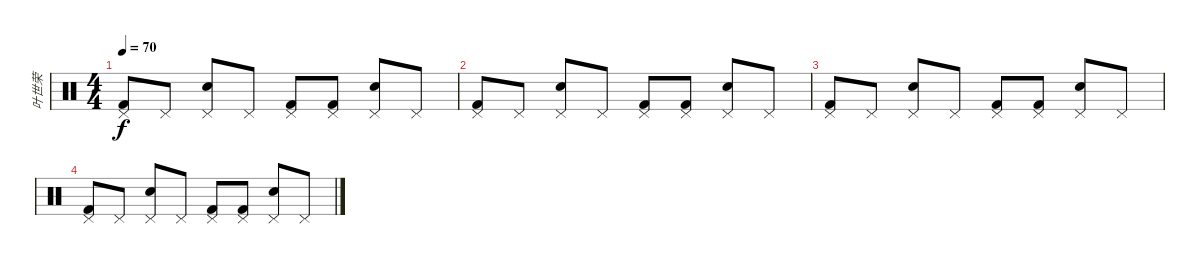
\track ("叶世荣" "叶世荣") {instrument percussion}
\staff {score}
\articulation defaults
\ts (4 4)
\tempo 70
\clef neutral
\ks c
("Pedal Hi-Hat (hit)" "Kick (hit) 2").8{dy f volume 5} "Pedal Hi-Hat (hit)".8 ("Pedal Hi-Hat (hit)" "Snare (hit) 2").8 "Pedal Hi-Hat (hit)".8 ("Pedal Hi-Hat (hit)" "Kick (hit) 2").8 ("Pedal Hi-Hat (hit)" "Kick (hit) 2").8 ("Pedal Hi-Hat (hit)" "Snare (hit) 2").8 "Pedal Hi-Hat (hit)".8 |
("Pedal Hi-Hat (hit)" "Kick (hit) 2").8{volume 2} "Pedal Hi-Hat (hit)".8 ("Pedal Hi-Hat (hit)" "Snare (hit) 2").8 "Pedal Hi-Hat (hit)".8 ("Pedal Hi-Hat (hit)" "Kick (hit) 2").8 ("Pedal Hi-Hat (hit)" "Kick (hit) 2").8 ("Pedal Hi-Hat (hit)" "Snare (hit) 2").8 "Pedal Hi-Hat (hit)".8 |
("Pedal Hi-Hat (hit)" "Kick (hit) 2").8{volume 1} "Pedal Hi-Hat (hit)".8 ("Pedal Hi-Hat (hit)" "Snare (hit) 2").8 "Pedal Hi-Hat (hit)".8 ("Pedal Hi-Hat (hit)" "Kick (hit) 2").8 ("Pedal Hi-Hat (hit)" "Kick (hit) 2").8 ("Pedal Hi-Hat (hit)" "Snare (hit) 2").8 "Pedal Hi-Hat (hit)".8 |
("Pedal Hi-Hat (hit)" "Kick (hit) 2").8{volume 0} "Pedal Hi-Hat (hit)".8 ("Pedal Hi-Hat (hit)" "Snare (hit) 2").8 "Pedal Hi-Hat (hit)".8 ("Pedal Hi-Hat (hit)" "Kick (hit) 2").8 ("Pedal Hi-Hat (hit)" "Kick (hit) 2").8 ("Pedal Hi-Hat (hit)" "Snare (hit) 2").8 "Pedal Hi-Hat (hit)".8
